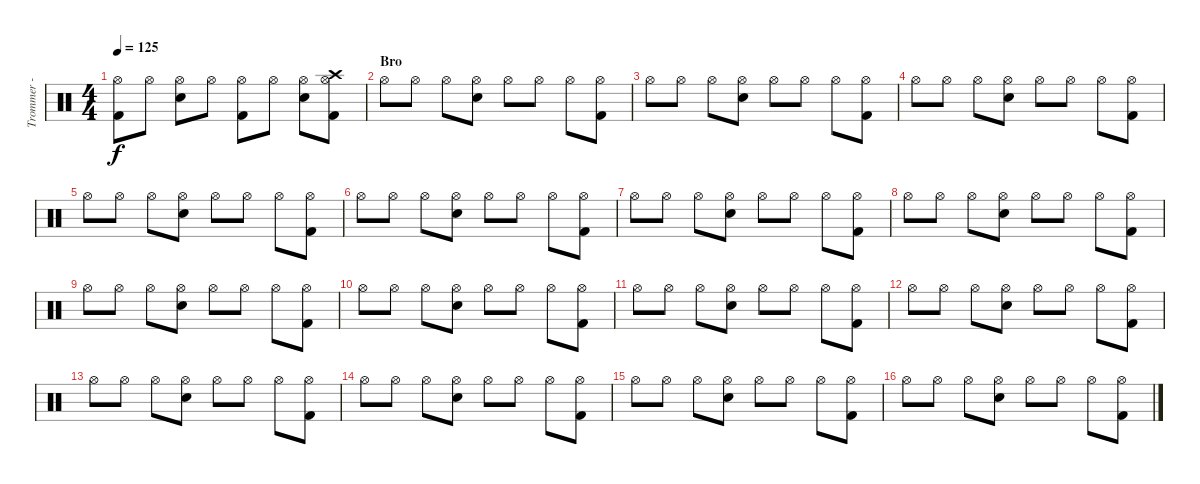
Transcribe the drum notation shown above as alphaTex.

\track ("Trommer - Alex" "Trommer - ") {instrument percussion}
\staff {score}
\articulation defaults
\ts (4 4)
\tempo 125
\clef neutral
\ks c
("Hi-Hat (open)" "Kick (hit) 2").8{dy f} "Hi-Hat (open)".8 ("Hi-Hat (open)" "Snare (hit) 2").8 "Hi-Hat (open)".8 ("Hi-Hat (open)" "Kick (hit) 2").8 "Hi-Hat (open)".8 ("Hi-Hat (open)" "Snare (hit) 2").8 ("Hi-Hat (open)" "Crash high (hit)" "Kick (hit) 2").8 |
\section ("" "Bro")
"Hi-Hat (open)".8 "Hi-Hat (open)".8 "Hi-Hat (open)".8 ("Hi-Hat (open)" "Snare (hit) 2").8 "Hi-Hat (open)".8 "Hi-Hat (open)".8 "Hi-Hat (open)".8 ("Hi-Hat (open)" "Kick (hit) 2").8 |
"Hi-Hat (open)".8 "Hi-Hat (open)".8 "Hi-Hat (open)".8 ("Hi-Hat (open)" "Snare (hit) 2").8 "Hi-Hat (open)".8 "Hi-Hat (open)".8 "Hi-Hat (open)".8 ("Hi-Hat (open)" "Kick (hit) 2").8 |
"Hi-Hat (open)".8 "Hi-Hat (open)".8 "Hi-Hat (open)".8 ("Hi-Hat (open)" "Snare (hit) 2").8 "Hi-Hat (open)".8 "Hi-Hat (open)".8 "Hi-Hat (open)".8 ("Hi-Hat (open)" "Kick (hit) 2").8 |
"Hi-Hat (open)".8 "Hi-Hat (open)".8 "Hi-Hat (open)".8 ("Hi-Hat (open)" "Snare (hit) 2").8 "Hi-Hat (open)".8 "Hi-Hat (open)".8 "Hi-Hat (open)".8 ("Hi-Hat (open)" "Kick (hit) 2").8 |
"Hi-Hat (open)".8 "Hi-Hat (open)".8 "Hi-Hat (open)".8 ("Hi-Hat (open)" "Snare (hit) 2").8 "Hi-Hat (open)".8 "Hi-Hat (open)".8 "Hi-Hat (open)".8 ("Hi-Hat (open)" "Kick (hit) 2").8 |
"Hi-Hat (open)".8 "Hi-Hat (open)".8 "Hi-Hat (open)".8 ("Hi-Hat (open)" "Snare (hit) 2").8 "Hi-Hat (open)".8 "Hi-Hat (open)".8 "Hi-Hat (open)".8 ("Hi-Hat (open)" "Kick (hit) 2").8 |
"Hi-Hat (open)".8 "Hi-Hat (open)".8 "Hi-Hat (open)".8 ("Hi-Hat (open)" "Snare (hit) 2").8 "Hi-Hat (open)".8 "Hi-Hat (open)".8 "Hi-Hat (open)".8 ("Hi-Hat (open)" "Kick (hit) 2").8 |
"Hi-Hat (open)".8 "Hi-Hat (open)".8 "Hi-Hat (open)".8 ("Hi-Hat (open)" "Snare (hit) 2").8 "Hi-Hat (open)".8 "Hi-Hat (open)".8 "Hi-Hat (open)".8 ("Hi-Hat (open)" "Kick (hit) 2").8 |
"Hi-Hat (open)".8 "Hi-Hat (open)".8 "Hi-Hat (open)".8 ("Hi-Hat (open)" "Snare (hit) 2").8 "Hi-Hat (open)".8 "Hi-Hat (open)".8 "Hi-Hat (open)".8 ("Hi-Hat (open)" "Kick (hit) 2").8 |
"Hi-Hat (open)".8 "Hi-Hat (open)".8 "Hi-Hat (open)".8 ("Hi-Hat (open)" "Snare (hit) 2").8 "Hi-Hat (open)".8 "Hi-Hat (open)".8 "Hi-Hat (open)".8 ("Hi-Hat (open)" "Kick (hit) 2").8 |
"Hi-Hat (open)".8 "Hi-Hat (open)".8 "Hi-Hat (open)".8 ("Hi-Hat (open)" "Snare (hit) 2").8 "Hi-Hat (open)".8 "Hi-Hat (open)".8 "Hi-Hat (open)".8 ("Hi-Hat (open)" "Kick (hit) 2").8 |
"Hi-Hat (open)".8 "Hi-Hat (open)".8 "Hi-Hat (open)".8 ("Hi-Hat (open)" "Snare (hit) 2").8 "Hi-Hat (open)".8 "Hi-Hat (open)".8 "Hi-Hat (open)".8 ("Hi-Hat (open)" "Kick (hit) 2").8 |
"Hi-Hat (open)".8 "Hi-Hat (open)".8 "Hi-Hat (open)".8 ("Hi-Hat (open)" "Snare (hit) 2").8 "Hi-Hat (open)".8 "Hi-Hat (open)".8 "Hi-Hat (open)".8 ("Hi-Hat (open)" "Kick (hit) 2").8 |
"Hi-Hat (open)".8 "Hi-Hat (open)".8 "Hi-Hat (open)".8 ("Hi-Hat (open)" "Snare (hit) 2").8 "Hi-Hat (open)".8 "Hi-Hat (open)".8 "Hi-Hat (open)".8 ("Hi-Hat (open)" "Kick (hit) 2").8 |
"Hi-Hat (open)".8 "Hi-Hat (open)".8 "Hi-Hat (open)".8 ("Hi-Hat (open)" "Snare (hit) 2").8 "Hi-Hat (open)".8 "Hi-Hat (open)".8 "Hi-Hat (open)".8 ("Hi-Hat (open)" "Kick (hit) 2").8
